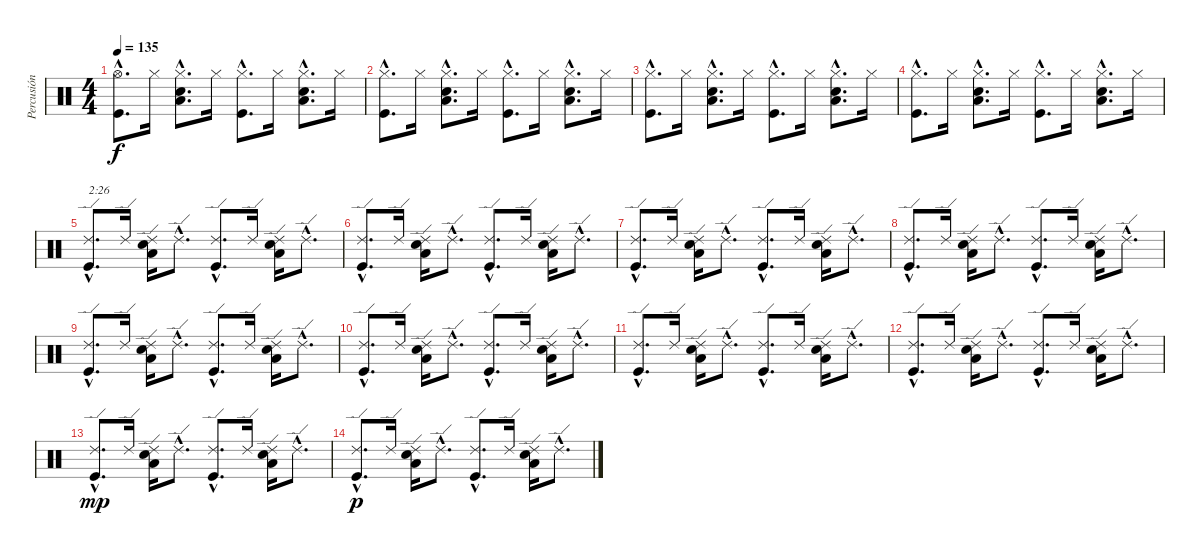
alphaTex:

\track ("Percusión" "Percusión") {instrument percussion}
\staff {score}
\articulation defaults
\ts (4 4)
\tempo 135
\clef neutral
\ks c
("Kick (hit)"{hac} "Hi-Hat (open)"{hac}).8{d dy f} "Hi-Hat (closed)".16 ("Snare (hit) 2"{hac} "Low Tom (hit)"{hac} "Hi-Hat (closed)"{hac}).8{d} "Hi-Hat (closed)".16 ("Kick (hit)"{hac} "Hi-Hat (closed)"{hac}).8{d} "Hi-Hat (closed)".16 ("Snare (hit) 2"{hac} "Low Tom (hit)"{hac} "Hi-Hat (closed)"{hac}).8{d} "Hi-Hat (closed)".16 |
("Kick (hit)"{hac} "Hi-Hat (closed)"{hac}).8{d} "Hi-Hat (closed)".16 ("Snare (hit) 2"{hac} "Low Tom (hit)"{hac} "Hi-Hat (closed)"{hac}).8{d} "Hi-Hat (closed)".16 ("Kick (hit)"{hac} "Hi-Hat (closed)"{hac}).8{d} "Hi-Hat (closed)".16 ("Snare (hit) 2"{hac} "Low Tom (hit)"{hac} "Hi-Hat (closed)"{hac}).8{d} "Hi-Hat (closed)".16 |
("Kick (hit)"{hac} "Hi-Hat (closed)"{hac}).8{d} "Hi-Hat (closed)".16 ("Snare (hit) 2"{hac} "Low Tom (hit)"{hac} "Hi-Hat (closed)"{hac}).8{d} "Hi-Hat (closed)".16 ("Kick (hit)"{hac} "Hi-Hat (closed)"{hac}).8{d} "Hi-Hat (closed)".16 ("Snare (hit) 2"{hac} "Low Tom (hit)"{hac} "Hi-Hat (closed)"{hac}).8{d} "Hi-Hat (closed)".16 |
("Kick (hit)"{hac} "Hi-Hat (closed)"{hac}).8{d} "Hi-Hat (closed)".16 ("Snare (hit) 2"{hac} "Low Tom (hit)"{hac} "Hi-Hat (closed)"{hac}).8{d} "Hi-Hat (closed)".16 ("Kick (hit)"{hac} "Hi-Hat (closed)"{hac}).8{d} "Hi-Hat (closed)".16 ("Snare (hit) 2"{hac} "Low Tom (hit)"{hac} "Hi-Hat (closed)"{hac}).8{d} "Hi-Hat (closed)".16 |
("Kick (hit)"{hac} "Ride (edge) 2"{hac}).8{d txt "2:26"} "Ride (edge) 2".16 ("Snare (hit) 2" "Low Tom (hit)" "Ride (edge) 2").16 "Ride (edge) 2"{hac}.8{d} ("Kick (hit)"{hac} "Ride (edge) 2"{hac}).8{d} "Ride (edge) 2".16 ("Snare (hit) 2" "Low Tom (hit)" "Ride (edge) 2").16 "Ride (edge) 2"{hac}.8{d} |
("Kick (hit)"{hac} "Ride (edge) 2"{hac}).8{d} "Ride (edge) 2".16 ("Snare (hit) 2" "Low Tom (hit)" "Ride (edge) 2").16 "Ride (edge) 2"{hac}.8{d} ("Kick (hit)"{hac} "Ride (edge) 2"{hac}).8{d} "Ride (edge) 2".16 ("Snare (hit) 2" "Low Tom (hit)" "Ride (edge) 2").16 "Ride (edge) 2"{hac}.8{d} |
("Kick (hit)"{hac} "Ride (edge) 2"{hac}).8{d} "Ride (edge) 2".16 ("Snare (hit) 2" "Low Tom (hit)" "Ride (edge) 2").16 "Ride (edge) 2"{hac}.8{d} ("Kick (hit)"{hac} "Ride (edge) 2"{hac}).8{d} "Ride (edge) 2".16 ("Snare (hit) 2" "Low Tom (hit)" "Ride (edge) 2").16 "Ride (edge) 2"{hac}.8{d} |
("Kick (hit)"{hac} "Ride (edge) 2"{hac}).8{d} "Ride (edge) 2".16 ("Snare (hit) 2" "Low Tom (hit)" "Ride (edge) 2").16 "Ride (edge) 2"{hac}.8{d} ("Kick (hit)"{hac} "Ride (edge) 2"{hac}).8{d} "Ride (edge) 2".16 ("Snare (hit) 2" "Low Tom (hit)" "Ride (edge) 2").16 "Ride (edge) 2"{hac}.8{d} |
("Kick (hit)"{hac} "Ride (edge) 2"{hac}).8{d} "Ride (edge) 2".16 ("Snare (hit) 2" "Low Tom (hit)" "Ride (edge) 2").16 "Ride (edge) 2"{hac}.8{d} ("Kick (hit)"{hac} "Ride (edge) 2"{hac}).8{d} "Ride (edge) 2".16 ("Snare (hit) 2" "Low Tom (hit)" "Ride (edge) 2").16 "Ride (edge) 2"{hac}.8{d} |
("Kick (hit)"{hac} "Ride (edge) 2"{hac}).8{d} "Ride (edge) 2".16 ("Snare (hit) 2" "Low Tom (hit)" "Ride (edge) 2").16 "Ride (edge) 2"{hac}.8{d} ("Kick (hit)"{hac} "Ride (edge) 2"{hac}).8{d} "Ride (edge) 2".16 ("Snare (hit) 2" "Low Tom (hit)" "Ride (edge) 2").16 "Ride (edge) 2"{hac}.8{d} |
("Kick (hit)"{hac} "Ride (edge) 2"{hac}).8{d} "Ride (edge) 2".16 ("Snare (hit) 2" "Low Tom (hit)" "Ride (edge) 2").16 "Ride (edge) 2"{hac}.8{d} ("Kick (hit)"{hac} "Ride (edge) 2"{hac}).8{d} "Ride (edge) 2".16 ("Snare (hit) 2" "Low Tom (hit)" "Ride (edge) 2").16 "Ride (edge) 2"{hac}.8{d} |
("Kick (hit)"{hac} "Ride (edge) 2"{hac}).8{d} "Ride (edge) 2".16 ("Snare (hit) 2" "Low Tom (hit)" "Ride (edge) 2").16 "Ride (edge) 2"{hac}.8{d} ("Kick (hit)"{hac} "Ride (edge) 2"{hac}).8{d} "Ride (edge) 2".16 ("Snare (hit) 2" "Low Tom (hit)" "Ride (edge) 2").16 "Ride (edge) 2"{hac}.8{d} |
("Kick (hit)"{hac} "Ride (edge) 2"{hac}).8{d dy mp} "Ride (edge) 2".16 ("Snare (hit) 2" "Low Tom (hit)" "Ride (edge) 2").16 "Ride (edge) 2"{hac}.8{d} ("Kick (hit)"{hac} "Ride (edge) 2"{hac}).8{d} "Ride (edge) 2".16 ("Snare (hit) 2" "Low Tom (hit)" "Ride (edge) 2").16 "Ride (edge) 2"{hac}.8{d} |
("Kick (hit)"{hac} "Ride (edge) 2"{hac}).8{d dy p} "Ride (edge) 2".16 ("Snare (hit) 2" "Low Tom (hit)" "Ride (edge) 2").16 "Ride (edge) 2"{hac}.8{d} ("Kick (hit)"{hac} "Ride (edge) 2"{hac}).8{d} "Ride (edge) 2".16 ("Snare (hit) 2" "Low Tom (hit)" "Ride (edge) 2").16 "Ride (edge) 2"{hac}.8{d}
